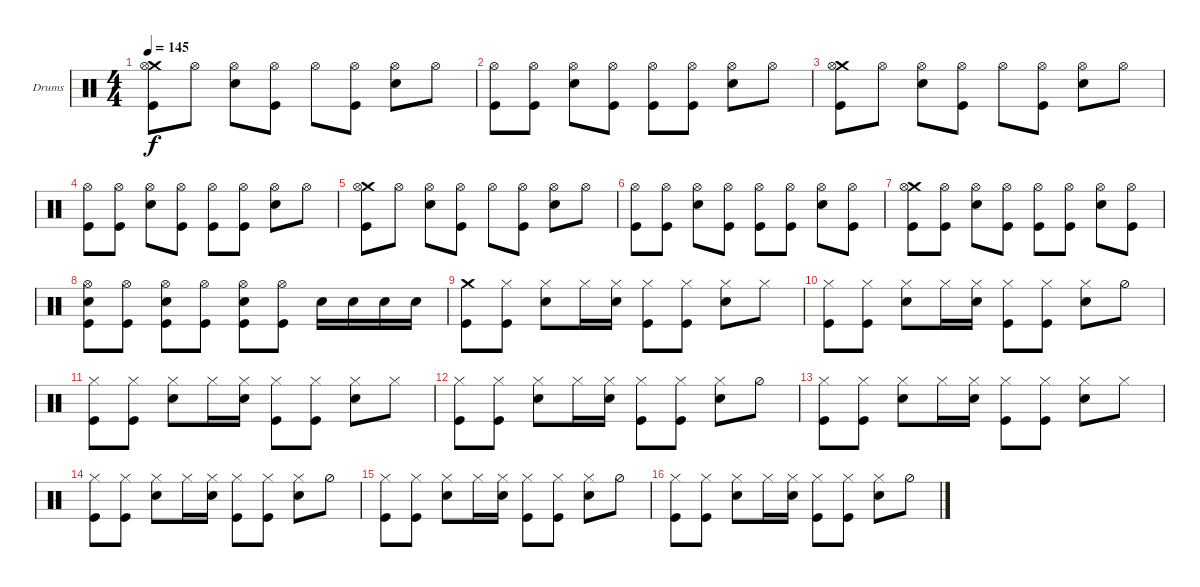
\defaultSystemsLayout 4
\bracketExtendMode groupsimilarinstruments
\firstSystemTrackNameOrientation horizontal
\otherSystemsTrackNameOrientation horizontal
\track ("Drumkit" "Drums") {instrument percussion}
\staff {score}
\articulation defaults
\ts (4 4)
\tempo 145
\clef neutral
\ks c
("Crash medium (hit)" "Kick (hit)" "Hi-Hat (open)").8{dy f} "Hi-Hat (open)".8 ("Hi-Hat (open)" "Snare (hit) 2").8 ("Kick (hit)" "Hi-Hat (open)").8 "Hi-Hat (open)".8 ("Kick (hit)" "Hi-Hat (open)").8 ("Hi-Hat (open)" "Snare (hit) 2").8 "Hi-Hat (open)".8 |
("Hi-Hat (open)" "Kick (hit)").8 ("Kick (hit)" "Hi-Hat (open)").8 ("Hi-Hat (open)" "Snare (hit) 2").8 ("Hi-Hat (open)" "Kick (hit)").8 ("Hi-Hat (open)" "Kick (hit)").8 ("Kick (hit)" "Hi-Hat (open)").8 ("Hi-Hat (open)" "Snare (hit) 2").8 "Hi-Hat (open)".8 |
("Crash medium (hit)" "Kick (hit)" "Hi-Hat (open)").8 "Hi-Hat (open)".8 ("Hi-Hat (open)" "Snare (hit) 2").8 ("Kick (hit)" "Hi-Hat (open)").8 "Hi-Hat (open)".8 ("Kick (hit)" "Hi-Hat (open)").8 ("Hi-Hat (open)" "Snare (hit) 2").8 "Hi-Hat (open)".8 |
("Hi-Hat (open)" "Kick (hit)").8 ("Kick (hit)" "Hi-Hat (open)").8 ("Hi-Hat (open)" "Snare (hit) 2").8 ("Hi-Hat (open)" "Kick (hit)").8 ("Hi-Hat (open)" "Kick (hit)").8 ("Kick (hit)" "Hi-Hat (open)").8 ("Hi-Hat (open)" "Snare (hit) 2").8 "Hi-Hat (open)".8 |
("Crash medium (hit)" "Kick (hit)" "Hi-Hat (open)").8 "Hi-Hat (open)".8 ("Hi-Hat (open)" "Snare (hit) 2").8 ("Kick (hit)" "Hi-Hat (open)").8 "Hi-Hat (open)".8 ("Kick (hit)" "Hi-Hat (open)").8 ("Hi-Hat (open)" "Snare (hit) 2").8 "Hi-Hat (open)".8 |
("Hi-Hat (open)" "Kick (hit)").8 ("Kick (hit)" "Hi-Hat (open)").8 ("Hi-Hat (open)" "Snare (hit) 2").8 ("Hi-Hat (open)" "Kick (hit)").8 ("Hi-Hat (open)" "Kick (hit)").8 ("Kick (hit)" "Hi-Hat (open)").8 ("Hi-Hat (open)" "Snare (hit) 2").8 ("Hi-Hat (open)" "Kick (hit)").8 |
("Crash medium (hit)" "Kick (hit)" "Hi-Hat (open)").8 ("Hi-Hat (open)" "Kick (hit)").8 ("Hi-Hat (open)" "Snare (hit) 2").8 ("Kick (hit)" "Hi-Hat (open)").8 ("Hi-Hat (open)" "Kick (hit)").8 ("Kick (hit)" "Hi-Hat (open)").8 ("Hi-Hat (open)" "Snare (hit) 2").8 ("Kick (hit)" "Hi-Hat (open)").8 |
("Hi-Hat (open)" "Kick (hit)" "Snare (hit) 2").8 ("Hi-Hat (open)" "Kick (hit)").8 ("Hi-Hat (open)" "Kick (hit)" "Snare (hit) 2").8 ("Hi-Hat (open)" "Kick (hit)").8 ("Hi-Hat (open)" "Kick (hit)" "Snare (hit) 2").8 ("Kick (hit)" "Hi-Hat (open)").8 "Snare (hit) 2".16 "Snare (hit) 2".16 "Snare (hit) 2".16 "Snare (hit) 2".16 |
("Kick (hit)" "Crash medium (hit)").8 ("Kick (hit)" "Hi-Hat (closed)").8 ("Snare (hit) 2" "Hi-Hat (closed)").8 "Hi-Hat (closed)".16 ("Snare (hit) 2" "Hi-Hat (closed)").16 ("Kick (hit)" "Hi-Hat (closed)").8 ("Kick (hit)" "Hi-Hat (closed)").8 ("Snare (hit) 2" "Hi-Hat (closed)").8 "Hi-Hat (closed)".8 |
("Kick (hit)" "Hi-Hat (closed)").8 ("Kick (hit)" "Hi-Hat (closed)").8 ("Snare (hit) 2" "Hi-Hat (closed)").8 "Hi-Hat (closed)".16 ("Snare (hit) 2" "Hi-Hat (closed)").16 ("Kick (hit)" "Hi-Hat (closed)").8 ("Kick (hit)" "Hi-Hat (closed)").8 ("Snare (hit) 2" "Hi-Hat (closed)").8 "Hi-Hat (half)".8 |
("Kick (hit)" "Hi-Hat (closed)").8 ("Kick (hit)" "Hi-Hat (closed)").8 ("Snare (hit) 2" "Hi-Hat (closed)").8 "Hi-Hat (closed)".16 ("Snare (hit) 2" "Hi-Hat (closed)").16 ("Kick (hit)" "Hi-Hat (closed)").8 ("Kick (hit)" "Hi-Hat (closed)").8 ("Snare (hit) 2" "Hi-Hat (closed)").8 "Hi-Hat (closed)".8 |
("Kick (hit)" "Hi-Hat (closed)").8 ("Kick (hit)" "Hi-Hat (closed)").8 ("Snare (hit) 2" "Hi-Hat (closed)").8 "Hi-Hat (closed)".16 ("Snare (hit) 2" "Hi-Hat (closed)").16 ("Kick (hit)" "Hi-Hat (closed)").8 ("Kick (hit)" "Hi-Hat (closed)").8 ("Snare (hit) 2" "Hi-Hat (closed)").8 "Hi-Hat (half)".8 |
("Kick (hit)" "Hi-Hat (closed)").8 ("Kick (hit)" "Hi-Hat (closed)").8 ("Snare (hit) 2" "Hi-Hat (closed)").8 "Hi-Hat (closed)".16 ("Snare (hit) 2" "Hi-Hat (closed)").16 ("Kick (hit)" "Hi-Hat (closed)").8 ("Kick (hit)" "Hi-Hat (closed)").8 ("Snare (hit) 2" "Hi-Hat (closed)").8 "Hi-Hat (closed)".8 |
("Kick (hit)" "Hi-Hat (closed)").8 ("Kick (hit)" "Hi-Hat (closed)").8 ("Snare (hit) 2" "Hi-Hat (closed)").8 "Hi-Hat (closed)".16 ("Snare (hit) 2" "Hi-Hat (closed)").16 ("Kick (hit)" "Hi-Hat (closed)").8 ("Kick (hit)" "Hi-Hat (closed)").8 ("Snare (hit) 2" "Hi-Hat (closed)").8 "Hi-Hat (half)".8 |
("Kick (hit)" "Hi-Hat (closed)").8 ("Kick (hit)" "Hi-Hat (closed)").8 ("Snare (hit) 2" "Hi-Hat (closed)").8 "Hi-Hat (closed)".16 ("Snare (hit) 2" "Hi-Hat (closed)").16 ("Kick (hit)" "Hi-Hat (closed)").8 ("Kick (hit)" "Hi-Hat (closed)").8 ("Snare (hit) 2" "Hi-Hat (closed)").8 "Hi-Hat (half)".8 |
("Kick (hit)" "Hi-Hat (closed)").8 ("Kick (hit)" "Hi-Hat (closed)").8 ("Snare (hit) 2" "Hi-Hat (closed)").8 "Hi-Hat (closed)".16 ("Snare (hit) 2" "Hi-Hat (closed)").16 ("Kick (hit)" "Hi-Hat (closed)").8 ("Kick (hit)" "Hi-Hat (closed)").8 ("Snare (hit) 2" "Hi-Hat (closed)").8 "Hi-Hat (half)".8
